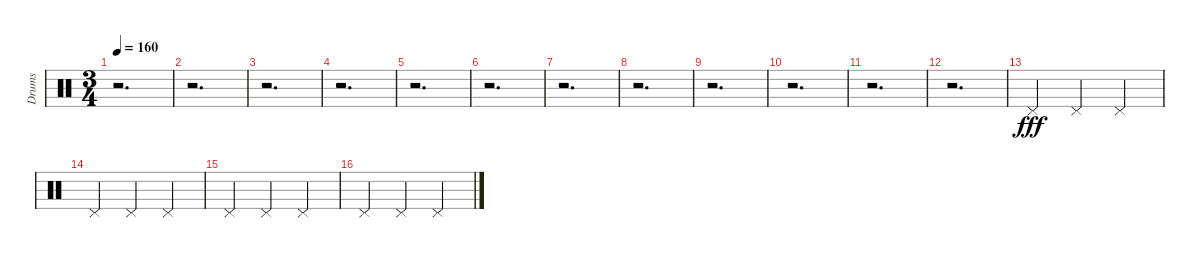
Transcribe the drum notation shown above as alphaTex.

\track ("Drums" "Drums") {instrument percussion}
\staff {score}
\articulation defaults
\ts (3 4)
\tempo 160
\clef neutral
\ks c
r.2{d dy fff} |
r.2{d} |
r.2{d} |
r.2{d} |
r.2{d} |
r.2{d} |
r.2{d} |
r.2{d} |
r.2{d} |
r.2{d} |
r.2{d} |
r.2{d} |
"Pedal Hi-Hat (hit)".4 "Pedal Hi-Hat (hit)".4 "Pedal Hi-Hat (hit)".4 |
"Pedal Hi-Hat (hit)".4 "Pedal Hi-Hat (hit)".4 "Pedal Hi-Hat (hit)".4 |
"Pedal Hi-Hat (hit)".4 "Pedal Hi-Hat (hit)".4 "Pedal Hi-Hat (hit)".4 |
"Pedal Hi-Hat (hit)".4 "Pedal Hi-Hat (hit)".4 "Pedal Hi-Hat (hit)".4
